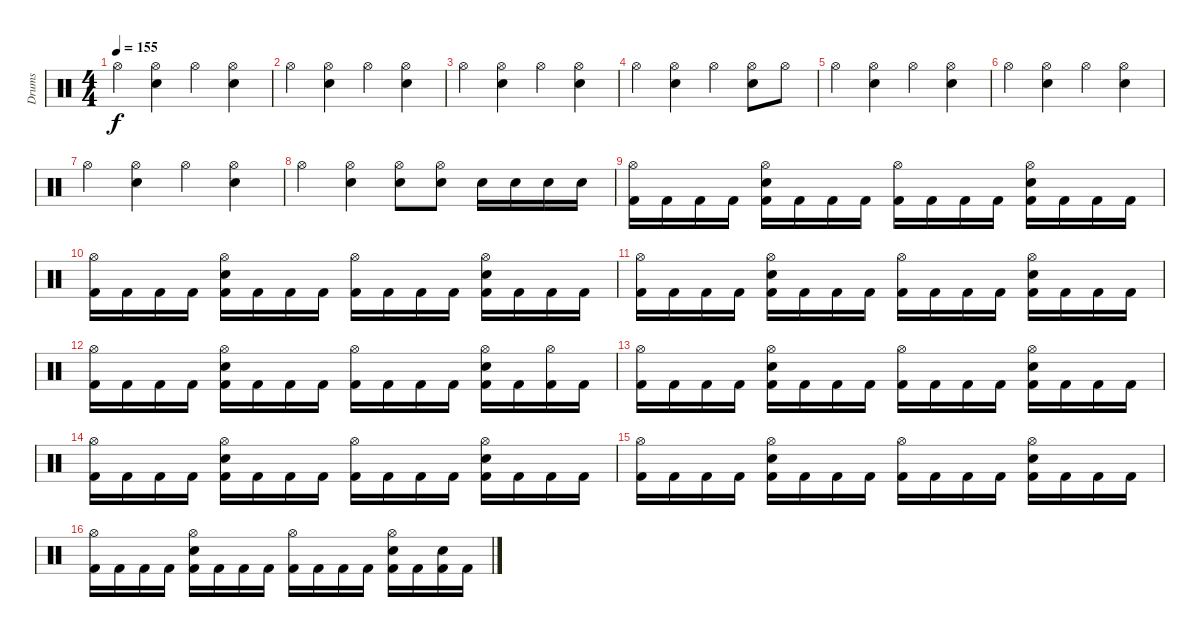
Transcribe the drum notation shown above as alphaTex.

\track ("Drums" "Drums") {instrument percussion}
\staff {score}
\articulation defaults
\ts (4 4)
\tempo 155
\clef neutral
\ks c "Hi-Hat (open)".4{dy f}
("Hi-Hat (open)" "Electric Snare (hit)").4 "Hi-Hat (open)".4 ("Hi-Hat (open)" "Electric Snare (hit)").4 |
"Hi-Hat (open)".4 ("Hi-Hat (open)" "Electric Snare (hit)").4 "Hi-Hat (open)".4 ("Hi-Hat (open)" "Electric Snare (hit)").4 |
"Hi-Hat (open)".4 ("Hi-Hat (open)" "Electric Snare (hit)").4 "Hi-Hat (open)".4 ("Hi-Hat (open)" "Electric Snare (hit)").4 |
"Hi-Hat (open)".4 ("Hi-Hat (open)" "Electric Snare (hit)").4 "Hi-Hat (open)".4 ("Hi-Hat (open)" "Electric Snare (hit)").8 "Hi-Hat (open)".8 |
"Hi-Hat (open)".4 ("Hi-Hat (open)" "Electric Snare (hit)").4 "Hi-Hat (open)".4 ("Hi-Hat (open)" "Electric Snare (hit)").4 |
"Hi-Hat (open)".4 ("Hi-Hat (open)" "Electric Snare (hit)").4 "Hi-Hat (open)".4 ("Hi-Hat (open)" "Electric Snare (hit)").4 |
"Hi-Hat (open)".4 ("Hi-Hat (open)" "Electric Snare (hit)").4 "Hi-Hat (open)".4 ("Hi-Hat (open)" "Electric Snare (hit)").4 |
"Hi-Hat (open)".4 ("Hi-Hat (open)" "Electric Snare (hit)").4 ("Hi-Hat (open)" "Electric Snare (hit)").8 ("Hi-Hat (open)" "Electric Snare (hit)").8 "Electric Snare (hit)".16 "Electric Snare (hit)".16 "Electric Snare (hit)".16 "Electric Snare (hit)".16 |
("Hi-Hat (open)" "Kick (hit) 2").16 "Kick (hit) 2".16 "Kick (hit) 2".16 "Kick (hit) 2".16 ("Hi-Hat (open)" "Electric Snare (hit)" "Kick (hit) 2").16 "Kick (hit) 2".16 "Kick (hit) 2".16 "Kick (hit) 2".16 ("Hi-Hat (open)" "Kick (hit) 2").16 "Kick (hit) 2".16 "Kick (hit) 2".16 "Kick (hit) 2".16 ("Hi-Hat (open)" "Electric Snare (hit)" "Kick (hit) 2").16 "Kick (hit) 2".16 "Kick (hit) 2".16 "Kick (hit) 2".16 |
("Hi-Hat (open)" "Kick (hit) 2").16 "Kick (hit) 2".16 "Kick (hit) 2".16 "Kick (hit) 2".16 ("Hi-Hat (open)" "Electric Snare (hit)" "Kick (hit) 2").16 "Kick (hit) 2".16 "Kick (hit) 2".16 "Kick (hit) 2".16 ("Hi-Hat (open)" "Kick (hit) 2").16 "Kick (hit) 2".16 "Kick (hit) 2".16 "Kick (hit) 2".16 ("Hi-Hat (open)" "Electric Snare (hit)" "Kick (hit) 2").16 "Kick (hit) 2".16 "Kick (hit) 2".16 "Kick (hit) 2".16 |
("Hi-Hat (open)" "Kick (hit) 2").16 "Kick (hit) 2".16 "Kick (hit) 2".16 "Kick (hit) 2".16 ("Hi-Hat (open)" "Electric Snare (hit)" "Kick (hit) 2").16 "Kick (hit) 2".16 "Kick (hit) 2".16 "Kick (hit) 2".16 ("Hi-Hat (open)" "Kick (hit) 2").16 "Kick (hit) 2".16 "Kick (hit) 2".16 "Kick (hit) 2".16 ("Hi-Hat (open)" "Electric Snare (hit)" "Kick (hit) 2").16 "Kick (hit) 2".16 "Kick (hit) 2".16 "Kick (hit) 2".16 |
("Hi-Hat (open)" "Kick (hit) 2").16 "Kick (hit) 2".16 "Kick (hit) 2".16 "Kick (hit) 2".16 ("Hi-Hat (open)" "Electric Snare (hit)" "Kick (hit) 2").16 "Kick (hit) 2".16 "Kick (hit) 2".16 "Kick (hit) 2".16 ("Hi-Hat (open)" "Kick (hit) 2").16 "Kick (hit) 2".16 "Kick (hit) 2".16 "Kick (hit) 2".16 ("Hi-Hat (open)" "Electric Snare (hit)" "Kick (hit) 2").16 "Kick (hit) 2".16 ("Hi-Hat (open)" "Kick (hit) 2").16 "Kick (hit) 2".16 |
("Hi-Hat (open)" "Kick (hit) 2").16 "Kick (hit) 2".16 "Kick (hit) 2".16 "Kick (hit) 2".16 ("Hi-Hat (open)" "Electric Snare (hit)" "Kick (hit) 2").16 "Kick (hit) 2".16 "Kick (hit) 2".16 "Kick (hit) 2".16 ("Hi-Hat (open)" "Kick (hit) 2").16 "Kick (hit) 2".16 "Kick (hit) 2".16 "Kick (hit) 2".16 ("Hi-Hat (open)" "Electric Snare (hit)" "Kick (hit) 2").16 "Kick (hit) 2".16 "Kick (hit) 2".16 "Kick (hit) 2".16 |
("Hi-Hat (open)" "Kick (hit) 2").16 "Kick (hit) 2".16 "Kick (hit) 2".16 "Kick (hit) 2".16 ("Hi-Hat (open)" "Electric Snare (hit)" "Kick (hit) 2").16 "Kick (hit) 2".16 "Kick (hit) 2".16 "Kick (hit) 2".16 ("Hi-Hat (open)" "Kick (hit) 2").16 "Kick (hit) 2".16 "Kick (hit) 2".16 "Kick (hit) 2".16 ("Hi-Hat (open)" "Electric Snare (hit)" "Kick (hit) 2").16 "Kick (hit) 2".16 "Kick (hit) 2".16 "Kick (hit) 2".16 |
("Hi-Hat (open)" "Kick (hit) 2").16 "Kick (hit) 2".16 "Kick (hit) 2".16 "Kick (hit) 2".16 ("Hi-Hat (open)" "Electric Snare (hit)" "Kick (hit) 2").16 "Kick (hit) 2".16 "Kick (hit) 2".16 "Kick (hit) 2".16 ("Hi-Hat (open)" "Kick (hit) 2").16 "Kick (hit) 2".16 "Kick (hit) 2".16 "Kick (hit) 2".16 ("Hi-Hat (open)" "Electric Snare (hit)" "Kick (hit) 2").16 "Kick (hit) 2".16 "Kick (hit) 2".16 "Kick (hit) 2".16 |
("Hi-Hat (open)" "Kick (hit) 2").16 "Kick (hit) 2".16 "Kick (hit) 2".16 "Kick (hit) 2".16 ("Hi-Hat (open)" "Electric Snare (hit)" "Kick (hit) 2").16 "Kick (hit) 2".16 "Kick (hit) 2".16 "Kick (hit) 2".16 ("Hi-Hat (open)" "Kick (hit) 2").16 "Kick (hit) 2".16 "Kick (hit) 2".16 "Kick (hit) 2".16 ("Hi-Hat (open)" "Electric Snare (hit)" "Kick (hit) 2").16 "Kick (hit) 2".16 ("Electric Snare (hit)" "Kick (hit) 2").16 "Kick (hit) 2".16
